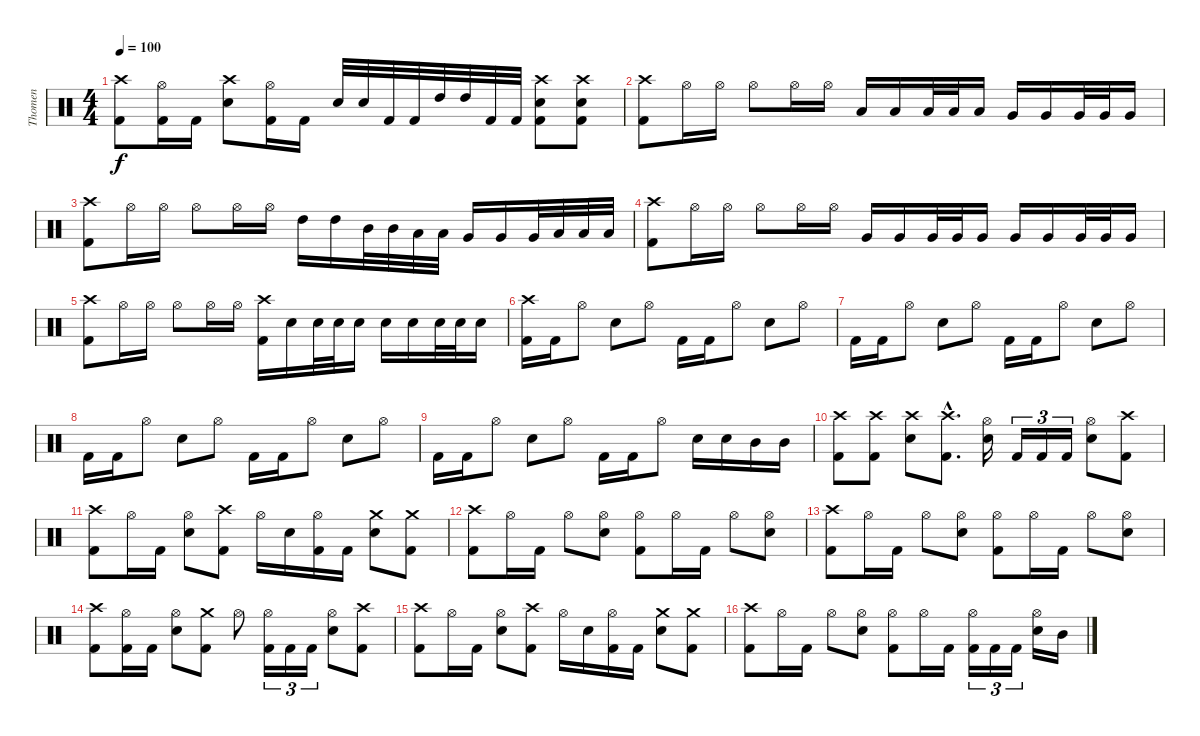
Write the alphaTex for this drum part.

\track ("Thomen" "Thomen") {instrument percussion}
\staff {score}
\articulation defaults
\ts (4 4)
\tempo 100
\clef neutral
\ks c
("Crash high (hit)" "Kick (hit) 2").8{dy f} ("Hi-Hat (open)" "Kick (hit) 2").16 "Kick (hit) 2".16 ("Crash high (hit)" "Snare (hit) 2").8 ("Hi-Hat (open)" "Kick (hit) 2").16 "Kick (hit) 2".16 "Snare (hit) 2".32 "Snare (hit) 2".32 "Kick (hit) 2".32 "Kick (hit) 2".32 "High Tom (hit)".32 "High Tom (hit)".32 "Kick (hit) 2".32 "Kick (hit) 2".32 ("Crash high (hit)" "Snare (hit) 2" "Kick (hit) 2").8 ("Crash high (hit)" "Snare (hit) 2" "Kick (hit) 2").8 |
("Crash high (hit)" "Kick (hit) 2").8 "Hi-Hat (open)".16 "Hi-Hat (open)".16 "Hi-Hat (open)".8 "Hi-Hat (open)".16 "Hi-Hat (open)".16 "Low Tom (hit)".16 "Low Tom (hit)".16 "Low Tom (hit)".32 "Low Tom (hit)".32 "Low Tom (hit)".16 "Very Low Tom (hit)".16 "Very Low Tom (hit)".16 "Very Low Tom (hit)".32 "Very Low Tom (hit)".32 "Very Low Tom (hit)".16 |
("Crash high (hit)" "Kick (hit) 2").8 "Hi-Hat (open)".16 "Hi-Hat (open)".16 "Hi-Hat (open)".8 "Hi-Hat (open)".16 "Hi-Hat (open)".16 "High Tom (hit)".16 "High Tom (hit)".16 "Mid Tom (hit)".32 "Mid Tom (hit)".32 "Low Tom (hit)".32 "Low Tom (hit)".32 "Very Low Tom (hit)".16 "Very Low Tom (hit)".16 "Very Low Tom (hit)".32 "Low Floor Tom (hit)".32 "Low Floor Tom (hit)".32 "Low Floor Tom (hit)".32 |
("Crash high (hit)" "Kick (hit) 2").8 "Hi-Hat (open)".16 "Hi-Hat (open)".16 "Hi-Hat (open)".8 "Hi-Hat (open)".16 "Hi-Hat (open)".16 "Very Low Tom (hit)".16 "Very Low Tom (hit)".16 "Very Low Tom (hit)".32 "Very Low Tom (hit)".32 "Very Low Tom (hit)".16 "Very Low Tom (hit)".16 "Very Low Tom (hit)".16 "Very Low Tom (hit)".32 "Very Low Tom (hit)".32 "Very Low Tom (hit)".16 |
("Crash high (hit)" "Kick (hit) 2").8 "Hi-Hat (open)".16 "Hi-Hat (open)".16 "Hi-Hat (open)".8 "Hi-Hat (open)".16 "Hi-Hat (open)".16 ("Crash high (hit)" "Kick (hit) 2").16 "Snare (hit) 2".16 "Snare (hit) 2".32 "Snare (hit) 2".32 "Snare (hit) 2".16 "Snare (hit) 2".16 "Snare (hit) 2".16 "Snare (hit) 2".32 "Snare (hit) 2".32 "Snare (hit) 2".16 |
("Crash high (hit)" "Kick (hit) 2").16 "Kick (hit) 2".16 "Hi-Hat (open)".8 "Snare (hit) 2".8 "Hi-Hat (open)".8 "Kick (hit) 2".16 "Kick (hit) 2".16 "Hi-Hat (open)".8 "Snare (hit) 2".8 "Hi-Hat (open)".8 |
"Kick (hit) 2".16 "Kick (hit) 2".16 "Hi-Hat (open)".8 "Snare (hit) 2".8 "Hi-Hat (open)".8 "Kick (hit) 2".16 "Kick (hit) 2".16 "Hi-Hat (open)".8 "Snare (hit) 2".8 "Hi-Hat (open)".8 |
"Kick (hit) 2".16 "Kick (hit) 2".16 "Hi-Hat (open)".8 "Snare (hit) 2".8 "Hi-Hat (open)".8 "Kick (hit) 2".16 "Kick (hit) 2".16 "Hi-Hat (open)".8 "Snare (hit) 2".8 "Hi-Hat (open)".8 |
"Kick (hit) 2".16 "Kick (hit) 2".16 "Hi-Hat (open)".8 "Snare (hit) 2".8 "Hi-Hat (open)".8 "Kick (hit) 2".16 "Kick (hit) 2".16 "Hi-Hat (open)".8 "Snare (hit) 2".16 "Snare (hit) 2".16 "Mid Tom (hit)".16 "Mid Tom (hit)".16 |
("Crash high (hit)" "Kick (hit) 2").8 ("Crash high (hit)" "Kick (hit) 2").8 ("Crash high (hit)" "Snare (hit) 2").8 ("Crash high (hit)"{hac} "Kick (hit) 2"{hac}).8{d} ("Hi-Hat (open)" "Snare (hit) 2").16 "Kick (hit) 2".16{tu (3 2)} "Kick (hit) 2".16{tu (3 2)} "Kick (hit) 2".16{tu (3 2)} ("Hi-Hat (open)" "Snare (hit) 2").8 ("Crash high (hit)" "Kick (hit) 2").8 |
("Crash high (hit)" "Kick (hit) 2").8 "Hi-Hat (open)".16 "Kick (hit) 2".16 ("Hi-Hat (open)" "Snare (hit) 2").8 ("Crash high (hit)" "Kick (hit) 2").8 "Hi-Hat (open)".16 "Snare (hit) 2".16 ("Hi-Hat (open)" "Kick (hit) 2").16 "Kick (hit) 2".16 ("Crash medium (hit)" "Snare (hit) 2").8 ("Crash medium (hit)" "Kick (hit) 2").8 |
("Crash high (hit)" "Kick (hit) 2").8 "Hi-Hat (open)".16 "Kick (hit) 2".16 "Hi-Hat (open)".8 ("Hi-Hat (open)" "Snare (hit) 2").8 ("Hi-Hat (open)" "Kick (hit) 2").8 "Hi-Hat (open)".16 "Kick (hit) 2".16 "Hi-Hat (open)".8 ("Hi-Hat (open)" "Snare (hit) 2").8 |
("Crash high (hit)" "Kick (hit) 2").8 "Hi-Hat (open)".16 "Kick (hit) 2".16 "Hi-Hat (open)".8 ("Hi-Hat (open)" "Snare (hit) 2").8 ("Hi-Hat (open)" "Kick (hit) 2").8 "Hi-Hat (open)".16 "Kick (hit) 2".16 "Hi-Hat (open)".8 ("Hi-Hat (open)" "Snare (hit) 2").8 |
("Crash high (hit)" "Kick (hit) 2").8 ("Hi-Hat (open)" "Kick (hit) 2").16 "Kick (hit) 2".16 ("Hi-Hat (open)" "Snare (hit) 2").8 ("Crash medium (hit)" "Kick (hit) 2").8 "Hi-Hat (open)".8 ("Hi-Hat (open)" "Kick (hit) 2").16{tu (3 2)} "Kick (hit) 2".16{tu (3 2)} "Kick (hit) 2".16{tu (3 2)} ("Hi-Hat (open)" "Snare (hit) 2").8 ("Crash high (hit)" "Kick (hit) 2").8 |
("Crash high (hit)" "Kick (hit) 2").8 "Hi-Hat (open)".16 "Kick (hit) 2".16 ("Hi-Hat (open)" "Snare (hit) 2").8 ("Crash high (hit)" "Kick (hit) 2").8 "Hi-Hat (open)".16 "Snare (hit) 2".16 ("Hi-Hat (open)" "Kick (hit) 2").16 "Kick (hit) 2".16 ("Crash medium (hit)" "Snare (hit) 2").8 ("Crash medium (hit)" "Kick (hit) 2").8 |
("Crash high (hit)" "Kick (hit) 2").8 "Hi-Hat (open)".16 "Kick (hit) 2".16 "Hi-Hat (open)".8 ("Hi-Hat (open)" "Snare (hit) 2").8 ("Hi-Hat (open)" "Kick (hit) 2").8 "Hi-Hat (open)".16 "Kick (hit) 2".16 ("Hi-Hat (open)" "Kick (hit) 2").16{tu (3 2)} "Kick (hit) 2".16{tu (3 2)} "Kick (hit) 2".16{tu (3 2)} ("Hi-Hat (open)" "Snare (hit) 2").16 "Mid Tom (hit)".16
